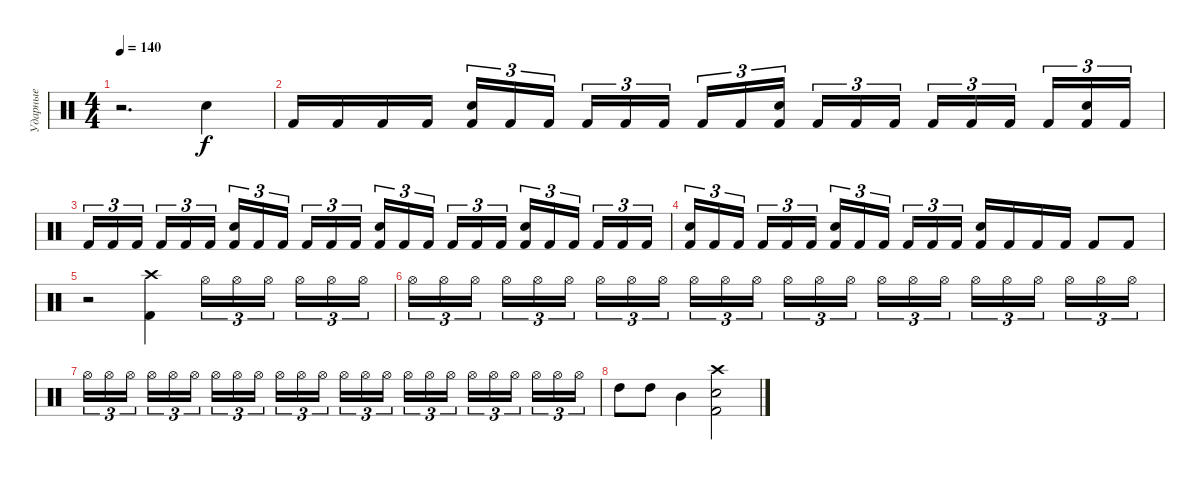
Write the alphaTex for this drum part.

\track ("Ударные" "Ударные") {instrument percussion}
\staff {score}
\articulation defaults
\ts (4 4)
\tempo 140
\clef neutral
\ks c
r.2{d dy ff} "Snare (hit) 2".4{dy f} |
"Kick (hit) 2".16 "Kick (hit) 2".16 "Kick (hit) 2".16 "Kick (hit) 2".16 ("Kick (hit) 2" "Snare (hit) 2").16{tu (3 2)} "Kick (hit) 2".16{tu (3 2)} "Kick (hit) 2".16{tu (3 2) beam splitsecondary} "Kick (hit) 2".16{tu (3 2)} "Kick (hit) 2".16{tu (3 2)} "Kick (hit) 2".16{tu (3 2)} "Kick (hit) 2".16{tu (3 2)} "Kick (hit) 2".16{tu (3 2)} ("Kick (hit) 2" "Snare (hit) 2").16{tu (3 2) beam splitsecondary} "Kick (hit) 2".16{tu (3 2)} "Kick (hit) 2".16{tu (3 2)} "Kick (hit) 2".16{tu (3 2)} "Kick (hit) 2".16{tu (3 2)} "Kick (hit) 2".16{tu (3 2)} "Kick (hit) 2".16{tu (3 2) beam splitsecondary} "Kick (hit) 2".16{tu (3 2)} ("Kick (hit) 2" "Snare (hit) 2").16{tu (3 2)} "Kick (hit) 2".16{tu (3 2)} |
"Kick (hit) 2".16{tu (3 2)} "Kick (hit) 2".16{tu (3 2)} "Kick (hit) 2".16{tu (3 2) beam splitsecondary} "Kick (hit) 2".16{tu (3 2)} "Kick (hit) 2".16{tu (3 2)} "Kick (hit) 2".16{tu (3 2)} ("Kick (hit) 2" "Snare (hit) 2").16{tu (3 2)} "Kick (hit) 2".16{tu (3 2)} "Kick (hit) 2".16{tu (3 2) beam splitsecondary} "Kick (hit) 2".16{tu (3 2)} "Kick (hit) 2".16{tu (3 2)} "Kick (hit) 2".16{tu (3 2)} ("Kick (hit) 2" "Snare (hit) 2").16{tu (3 2)} "Kick (hit) 2".16{tu (3 2)} "Kick (hit) 2".16{tu (3 2) beam splitsecondary} "Kick (hit) 2".16{tu (3 2)} "Kick (hit) 2".16{tu (3 2)} "Kick (hit) 2".16{tu (3 2)} ("Kick (hit) 2" "Snare (hit) 2").16{tu (3 2)} "Kick (hit) 2".16{tu (3 2)} "Kick (hit) 2".16{tu (3 2) beam splitsecondary} "Kick (hit) 2".16{tu (3 2)} "Kick (hit) 2".16{tu (3 2)} "Kick (hit) 2".16{tu (3 2)} |
("Kick (hit) 2" "Snare (hit) 2").16{tu (3 2)} "Kick (hit) 2".16{tu (3 2)} "Kick (hit) 2".16{tu (3 2) beam splitsecondary} "Kick (hit) 2".16{tu (3 2)} "Kick (hit) 2".16{tu (3 2)} "Kick (hit) 2".16{tu (3 2)} ("Kick (hit) 2" "Snare (hit) 2").16{tu (3 2)} "Kick (hit) 2".16{tu (3 2)} "Kick (hit) 2".16{tu (3 2) beam splitsecondary} "Kick (hit) 2".16{tu (3 2)} "Kick (hit) 2".16{tu (3 2)} "Kick (hit) 2".16{tu (3 2)} ("Kick (hit) 2" "Snare (hit) 2").16 "Kick (hit) 2".16 "Kick (hit) 2".16 "Kick (hit) 2".16 "Kick (hit) 2".8 "Kick (hit) 2".8 |
r.2 ("Kick (hit) 2" "Crash high (hit)").4 "Hi-Hat (open)".16{tu (3 2)} "Hi-Hat (open)".16{tu (3 2)} "Hi-Hat (open)".16{tu (3 2) beam splitsecondary} "Hi-Hat (open)".16{tu (3 2)} "Hi-Hat (open)".16{tu (3 2)} "Hi-Hat (open)".16{tu (3 2)} |
"Hi-Hat (open)".16{tu (3 2)} "Hi-Hat (open)".16{tu (3 2)} "Hi-Hat (open)".16{tu (3 2) beam splitsecondary} "Hi-Hat (open)".16{tu (3 2)} "Hi-Hat (open)".16{tu (3 2)} "Hi-Hat (open)".16{tu (3 2)} "Hi-Hat (open)".16{tu (3 2)} "Hi-Hat (open)".16{tu (3 2)} "Hi-Hat (open)".16{tu (3 2) beam splitsecondary} "Hi-Hat (open)".16{tu (3 2)} "Hi-Hat (open)".16{tu (3 2)} "Hi-Hat (open)".16{tu (3 2)} "Hi-Hat (open)".16{tu (3 2)} "Hi-Hat (open)".16{tu (3 2)} "Hi-Hat (open)".16{tu (3 2) beam splitsecondary} "Hi-Hat (open)".16{tu (3 2)} "Hi-Hat (open)".16{tu (3 2)} "Hi-Hat (open)".16{tu (3 2)} "Hi-Hat (open)".16{tu (3 2)} "Hi-Hat (open)".16{tu (3 2)} "Hi-Hat (open)".16{tu (3 2) beam splitsecondary} "Hi-Hat (open)".16{tu (3 2)} "Hi-Hat (open)".16{tu (3 2)} "Hi-Hat (open)".16{tu (3 2)} |
"Hi-Hat (open)".16{tu (3 2)} "Hi-Hat (open)".16{tu (3 2)} "Hi-Hat (open)".16{tu (3 2) beam splitsecondary} "Hi-Hat (open)".16{tu (3 2)} "Hi-Hat (open)".16{tu (3 2)} "Hi-Hat (open)".16{tu (3 2)} "Hi-Hat (open)".16{tu (3 2)} "Hi-Hat (open)".16{tu (3 2)} "Hi-Hat (open)".16{tu (3 2) beam splitsecondary} "Hi-Hat (open)".16{tu (3 2)} "Hi-Hat (open)".16{tu (3 2)} "Hi-Hat (open)".16{tu (3 2)} "Hi-Hat (open)".16{tu (3 2)} "Hi-Hat (open)".16{tu (3 2)} "Hi-Hat (open)".16{tu (3 2) beam splitsecondary} "Hi-Hat (open)".16{tu (3 2)} "Hi-Hat (open)".16{tu (3 2)} "Hi-Hat (open)".16{tu (3 2)} "Hi-Hat (open)".16{tu (3 2)} "Hi-Hat (open)".16{tu (3 2)} "Hi-Hat (open)".16{tu (3 2) beam splitsecondary} "Hi-Hat (open)".16{tu (3 2)} "Hi-Hat (open)".16{tu (3 2)} "Hi-Hat (open)".16{tu (3 2)} |
"High Tom (hit)".8 "High Tom (hit)".8 "Mid Tom (hit)".4 ("Kick (hit) 2" "Snare (hit) 2" "Crash high (hit)").2
